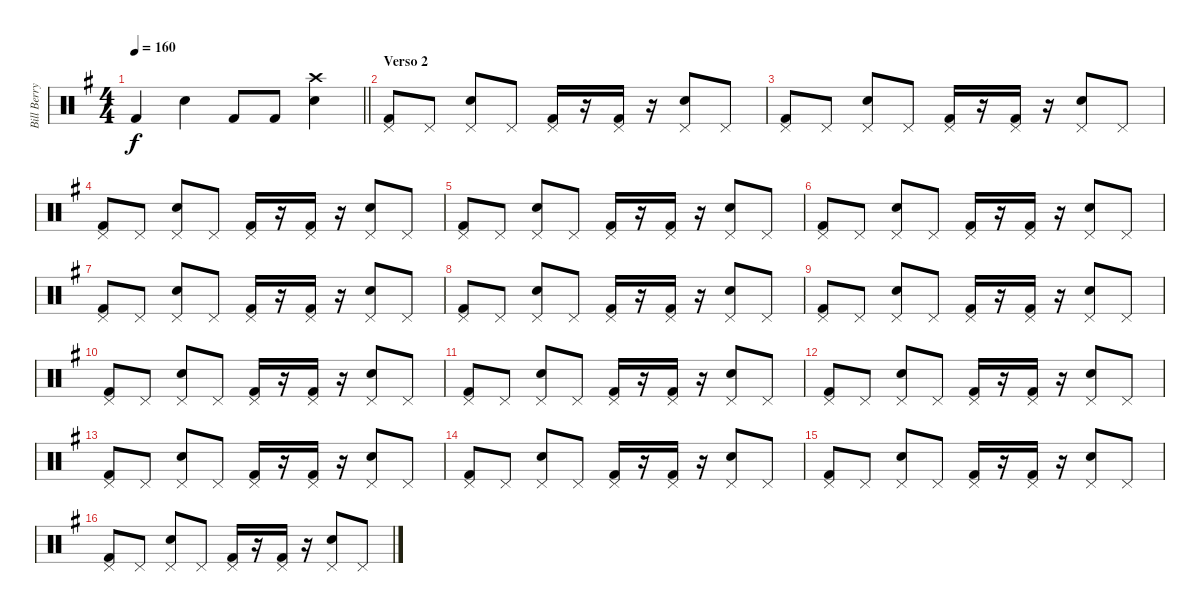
\track ("Bill Berry" "Bill Berry") {instrument percussion}
\staff {score}
\articulation defaults
\ts (4 4)
\tempo 160
\clef neutral
\barLineRight lightlight
\ks g "Kick (hit) 2".4{dy f} "Snare (hit) 2".4 "Kick (hit) 2".8 "Kick (hit) 2".8
("Snare (hit) 2" "Crash high (hit)").4 |
\section ("" "Verso 2")
("Kick (hit) 2" "Pedal Hi-Hat (hit)").8 "Pedal Hi-Hat (hit)".8 ("Snare (hit) 2" "Pedal Hi-Hat (hit)").8 "Pedal Hi-Hat (hit)".8 ("Kick (hit) 2" "Pedal Hi-Hat (hit)").16 r.16 ("Kick (hit) 2" "Pedal Hi-Hat (hit)").16 r.16 ("Snare (hit) 2" "Pedal Hi-Hat (hit)").8 "Pedal Hi-Hat (hit)".8 |
("Kick (hit) 2" "Pedal Hi-Hat (hit)").8 "Pedal Hi-Hat (hit)".8 ("Snare (hit) 2" "Pedal Hi-Hat (hit)").8 "Pedal Hi-Hat (hit)".8 ("Kick (hit) 2" "Pedal Hi-Hat (hit)").16 r.16 ("Kick (hit) 2" "Pedal Hi-Hat (hit)").16 r.16 ("Snare (hit) 2" "Pedal Hi-Hat (hit)").8 "Pedal Hi-Hat (hit)".8 |
("Kick (hit) 2" "Pedal Hi-Hat (hit)").8 "Pedal Hi-Hat (hit)".8 ("Snare (hit) 2" "Pedal Hi-Hat (hit)").8 "Pedal Hi-Hat (hit)".8 ("Kick (hit) 2" "Pedal Hi-Hat (hit)").16 r.16 ("Kick (hit) 2" "Pedal Hi-Hat (hit)").16 r.16 ("Snare (hit) 2" "Pedal Hi-Hat (hit)").8 "Pedal Hi-Hat (hit)".8 |
("Kick (hit) 2" "Pedal Hi-Hat (hit)").8 "Pedal Hi-Hat (hit)".8 ("Snare (hit) 2" "Pedal Hi-Hat (hit)").8 "Pedal Hi-Hat (hit)".8 ("Kick (hit) 2" "Pedal Hi-Hat (hit)").16 r.16 ("Kick (hit) 2" "Pedal Hi-Hat (hit)").16 r.16 ("Snare (hit) 2" "Pedal Hi-Hat (hit)").8 "Pedal Hi-Hat (hit)".8 |
("Kick (hit) 2" "Pedal Hi-Hat (hit)").8 "Pedal Hi-Hat (hit)".8 ("Snare (hit) 2" "Pedal Hi-Hat (hit)").8 "Pedal Hi-Hat (hit)".8 ("Kick (hit) 2" "Pedal Hi-Hat (hit)").16 r.16 ("Kick (hit) 2" "Pedal Hi-Hat (hit)").16 r.16 ("Snare (hit) 2" "Pedal Hi-Hat (hit)").8 "Pedal Hi-Hat (hit)".8 |
("Kick (hit) 2" "Pedal Hi-Hat (hit)").8 "Pedal Hi-Hat (hit)".8 ("Snare (hit) 2" "Pedal Hi-Hat (hit)").8 "Pedal Hi-Hat (hit)".8 ("Kick (hit) 2" "Pedal Hi-Hat (hit)").16 r.16 ("Kick (hit) 2" "Pedal Hi-Hat (hit)").16 r.16 ("Snare (hit) 2" "Pedal Hi-Hat (hit)").8 "Pedal Hi-Hat (hit)".8 |
("Kick (hit) 2" "Pedal Hi-Hat (hit)").8 "Pedal Hi-Hat (hit)".8 ("Snare (hit) 2" "Pedal Hi-Hat (hit)").8 "Pedal Hi-Hat (hit)".8 ("Kick (hit) 2" "Pedal Hi-Hat (hit)").16 r.16 ("Kick (hit) 2" "Pedal Hi-Hat (hit)").16 r.16 ("Snare (hit) 2" "Pedal Hi-Hat (hit)").8 "Pedal Hi-Hat (hit)".8 |
("Kick (hit) 2" "Pedal Hi-Hat (hit)").8 "Pedal Hi-Hat (hit)".8 ("Snare (hit) 2" "Pedal Hi-Hat (hit)").8 "Pedal Hi-Hat (hit)".8 ("Kick (hit) 2" "Pedal Hi-Hat (hit)").16 r.16 ("Kick (hit) 2" "Pedal Hi-Hat (hit)").16 r.16 ("Snare (hit) 2" "Pedal Hi-Hat (hit)").8 "Pedal Hi-Hat (hit)".8 |
("Kick (hit) 2" "Pedal Hi-Hat (hit)").8 "Pedal Hi-Hat (hit)".8 ("Snare (hit) 2" "Pedal Hi-Hat (hit)").8 "Pedal Hi-Hat (hit)".8 ("Kick (hit) 2" "Pedal Hi-Hat (hit)").16 r.16 ("Kick (hit) 2" "Pedal Hi-Hat (hit)").16 r.16 ("Snare (hit) 2" "Pedal Hi-Hat (hit)").8 "Pedal Hi-Hat (hit)".8 |
("Kick (hit) 2" "Pedal Hi-Hat (hit)").8 "Pedal Hi-Hat (hit)".8 ("Snare (hit) 2" "Pedal Hi-Hat (hit)").8 "Pedal Hi-Hat (hit)".8 ("Kick (hit) 2" "Pedal Hi-Hat (hit)").16 r.16 ("Kick (hit) 2" "Pedal Hi-Hat (hit)").16 r.16 ("Snare (hit) 2" "Pedal Hi-Hat (hit)").8 "Pedal Hi-Hat (hit)".8 |
("Kick (hit) 2" "Pedal Hi-Hat (hit)").8 "Pedal Hi-Hat (hit)".8 ("Snare (hit) 2" "Pedal Hi-Hat (hit)").8 "Pedal Hi-Hat (hit)".8 ("Kick (hit) 2" "Pedal Hi-Hat (hit)").16 r.16 ("Kick (hit) 2" "Pedal Hi-Hat (hit)").16 r.16 ("Snare (hit) 2" "Pedal Hi-Hat (hit)").8 "Pedal Hi-Hat (hit)".8 |
("Kick (hit) 2" "Pedal Hi-Hat (hit)").8 "Pedal Hi-Hat (hit)".8 ("Snare (hit) 2" "Pedal Hi-Hat (hit)").8 "Pedal Hi-Hat (hit)".8 ("Kick (hit) 2" "Pedal Hi-Hat (hit)").16 r.16 ("Kick (hit) 2" "Pedal Hi-Hat (hit)").16 r.16 ("Snare (hit) 2" "Pedal Hi-Hat (hit)").8 "Pedal Hi-Hat (hit)".8 |
("Kick (hit) 2" "Pedal Hi-Hat (hit)").8 "Pedal Hi-Hat (hit)".8 ("Snare (hit) 2" "Pedal Hi-Hat (hit)").8 "Pedal Hi-Hat (hit)".8 ("Kick (hit) 2" "Pedal Hi-Hat (hit)").16 r.16 ("Kick (hit) 2" "Pedal Hi-Hat (hit)").16 r.16 ("Snare (hit) 2" "Pedal Hi-Hat (hit)").8 "Pedal Hi-Hat (hit)".8 |
("Kick (hit) 2" "Pedal Hi-Hat (hit)").8 "Pedal Hi-Hat (hit)".8 ("Snare (hit) 2" "Pedal Hi-Hat (hit)").8 "Pedal Hi-Hat (hit)".8 ("Kick (hit) 2" "Pedal Hi-Hat (hit)").16 r.16 ("Kick (hit) 2" "Pedal Hi-Hat (hit)").16 r.16 ("Snare (hit) 2" "Pedal Hi-Hat (hit)").8 "Pedal Hi-Hat (hit)".8 |
("Kick (hit) 2" "Pedal Hi-Hat (hit)").8 "Pedal Hi-Hat (hit)".8 ("Snare (hit) 2" "Pedal Hi-Hat (hit)").8 "Pedal Hi-Hat (hit)".8 ("Kick (hit) 2" "Pedal Hi-Hat (hit)").16 r.16 ("Kick (hit) 2" "Pedal Hi-Hat (hit)").16 r.16 ("Snare (hit) 2" "Pedal Hi-Hat (hit)").8 "Pedal Hi-Hat (hit)".8
